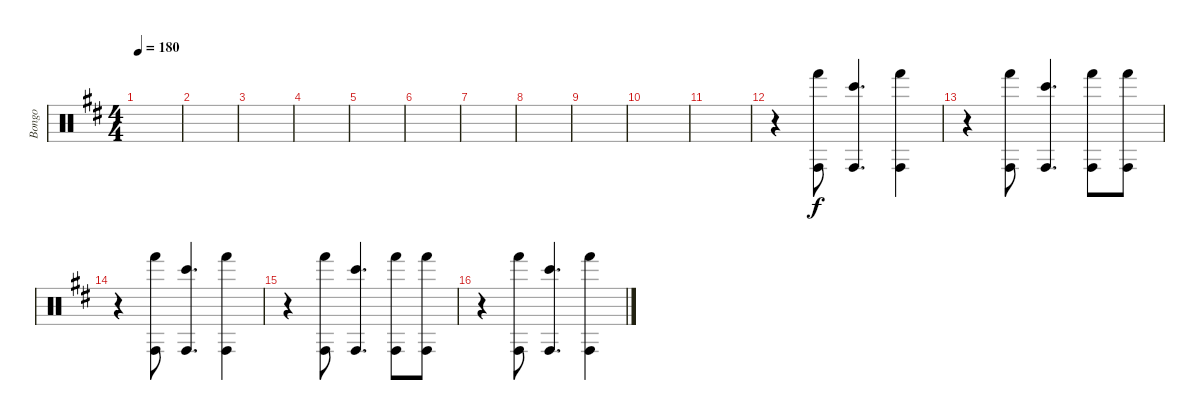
\track ("Bongo" "Bongo") {instrument percussion}
\staff {score}
\articulation defaults
\ts (4 4)
\tempo 180
\clef neutral
\ks d
|
|
|
|
|
|
|
|
|
|
|
r.4 ("Hand (hit)" "Conga high (hit)").8 ("Bongo High (hit)" "Conga high (hit)").4{d} ("Hand (hit)" "Conga high (hit)").4 |
r.4 ("Hand (hit)" "Conga high (hit)").8 ("Bongo High (hit)" "Conga high (hit)").4{d} ("Hand (hit)" "Conga high (hit)").8 ("Hand (hit)" "Conga high (hit)").8 |
r.4 ("Hand (hit)" "Conga high (hit)").8 ("Bongo High (hit)" "Conga high (hit)").4{d} ("Hand (hit)" "Conga high (hit)").4 |
r.4 ("Hand (hit)" "Conga high (hit)").8 ("Bongo High (hit)" "Conga high (hit)").4{d} ("Hand (hit)" "Conga high (hit)").8 ("Hand (hit)" "Conga high (hit)").8 |
r.4 ("Hand (hit)" "Conga high (hit)").8 ("Bongo High (hit)" "Conga high (hit)").4{d} ("Hand (hit)" "Conga high (hit)").4
